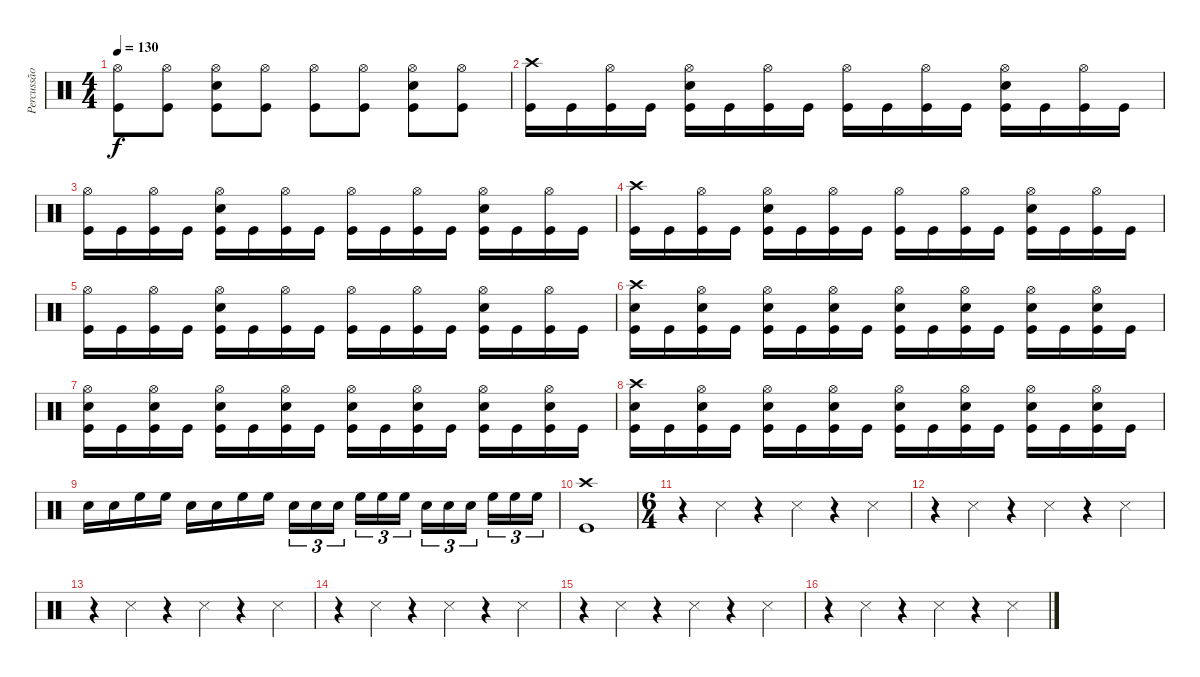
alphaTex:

\track ("Percussão" "Percussão") {instrument percussion}
\staff {score}
\articulation defaults
\ts (4 4)
\tempo 130
\clef neutral
\ks c
("Hi-Hat (open)" "Kick (hit)").8{dy f} ("Hi-Hat (open)" "Kick (hit)").8 ("Hi-Hat (open)" "Snare (hit) 2" "Kick (hit)").8 ("Hi-Hat (open)" "Kick (hit)").8 ("Hi-Hat (open)" "Kick (hit)").8 ("Hi-Hat (open)" "Kick (hit)").8 ("Hi-Hat (open)" "Snare (hit) 2" "Kick (hit)").8 ("Hi-Hat (open)" "Kick (hit)").8 |
("Crash high (hit)" "Kick (hit)").16 "Kick (hit)".16 ("Hi-Hat (open)" "Kick (hit)").16 "Kick (hit)".16 ("Hi-Hat (open)" "Snare (hit) 2" "Kick (hit)").16 "Kick (hit)".16 ("Hi-Hat (open)" "Kick (hit)").16 "Kick (hit)".16 ("Hi-Hat (open)" "Kick (hit)").16 "Kick (hit)".16 ("Hi-Hat (open)" "Kick (hit)").16 "Kick (hit)".16 ("Hi-Hat (open)" "Snare (hit) 2" "Kick (hit)").16 "Kick (hit)".16 ("Hi-Hat (open)" "Kick (hit)").16 "Kick (hit)".16 |
("Hi-Hat (open)" "Kick (hit)").16 "Kick (hit)".16 ("Hi-Hat (open)" "Kick (hit)").16 "Kick (hit)".16 ("Hi-Hat (open)" "Snare (hit) 2" "Kick (hit)").16 "Kick (hit)".16 ("Hi-Hat (open)" "Kick (hit)").16 "Kick (hit)".16 ("Hi-Hat (open)" "Kick (hit)").16 "Kick (hit)".16 ("Hi-Hat (open)" "Kick (hit)").16 "Kick (hit)".16 ("Hi-Hat (open)" "Snare (hit) 2" "Kick (hit)").16 "Kick (hit)".16 ("Hi-Hat (open)" "Kick (hit)").16 "Kick (hit)".16 |
("Crash high (hit)" "Kick (hit)").16 "Kick (hit)".16 ("Hi-Hat (open)" "Kick (hit)").16 "Kick (hit)".16 ("Hi-Hat (open)" "Snare (hit) 2" "Kick (hit)").16 "Kick (hit)".16 ("Hi-Hat (open)" "Kick (hit)").16 "Kick (hit)".16 ("Hi-Hat (open)" "Kick (hit)").16 "Kick (hit)".16 ("Hi-Hat (open)" "Kick (hit)").16 "Kick (hit)".16 ("Hi-Hat (open)" "Snare (hit) 2" "Kick (hit)").16 "Kick (hit)".16 ("Hi-Hat (open)" "Kick (hit)").16 "Kick (hit)".16 |
("Hi-Hat (open)" "Kick (hit)").16 "Kick (hit)".16 ("Hi-Hat (open)" "Kick (hit)").16 "Kick (hit)".16 ("Hi-Hat (open)" "Snare (hit) 2" "Kick (hit)").16 "Kick (hit)".16 ("Hi-Hat (open)" "Kick (hit)").16 "Kick (hit)".16 ("Hi-Hat (open)" "Kick (hit)").16 "Kick (hit)".16 ("Hi-Hat (open)" "Kick (hit)").16 "Kick (hit)".16 ("Hi-Hat (open)" "Snare (hit) 2" "Kick (hit)").16 "Kick (hit)".16 ("Hi-Hat (open)" "Kick (hit)").16 "Kick (hit)".16 |
("Crash high (hit)" "Snare (hit) 2" "Kick (hit)").16 "Kick (hit)".16 ("Hi-Hat (open)" "Snare (hit) 2" "Kick (hit)").16 "Kick (hit)".16 ("Hi-Hat (open)" "Snare (hit) 2" "Kick (hit)").16 "Kick (hit)".16 ("Hi-Hat (open)" "Snare (hit) 2" "Kick (hit)").16 "Kick (hit)".16 ("Hi-Hat (open)" "Snare (hit) 2" "Kick (hit)").16 "Kick (hit)".16 ("Hi-Hat (open)" "Snare (hit) 2" "Kick (hit)").16 "Kick (hit)".16 ("Hi-Hat (open)" "Snare (hit) 2" "Kick (hit)").16 "Kick (hit)".16 ("Hi-Hat (open)" "Snare (hit) 2" "Kick (hit)").16 "Kick (hit)".16 |
("Hi-Hat (open)" "Snare (hit) 2" "Kick (hit)").16 "Kick (hit)".16 ("Hi-Hat (open)" "Snare (hit) 2" "Kick (hit)").16 "Kick (hit)".16 ("Hi-Hat (open)" "Snare (hit) 2" "Kick (hit)").16 "Kick (hit)".16 ("Hi-Hat (open)" "Snare (hit) 2" "Kick (hit)").16 "Kick (hit)".16 ("Hi-Hat (open)" "Snare (hit) 2" "Kick (hit)").16 "Kick (hit)".16 ("Hi-Hat (open)" "Snare (hit) 2" "Kick (hit)").16 "Kick (hit)".16 ("Hi-Hat (open)" "Snare (hit) 2" "Kick (hit)").16 "Kick (hit)".16 ("Hi-Hat (open)" "Snare (hit) 2" "Kick (hit)").16 "Kick (hit)".16 |
("Crash high (hit)" "Snare (hit) 2" "Kick (hit)").16 "Kick (hit)".16 ("Hi-Hat (open)" "Snare (hit) 2" "Kick (hit)").16 "Kick (hit)".16 ("Hi-Hat (open)" "Snare (hit) 2" "Kick (hit)").16 "Kick (hit)".16 ("Hi-Hat (open)" "Snare (hit) 2" "Kick (hit)").16 "Kick (hit)".16 ("Hi-Hat (open)" "Snare (hit) 2" "Kick (hit)").16 "Kick (hit)".16 ("Hi-Hat (open)" "Snare (hit) 2" "Kick (hit)").16 "Kick (hit)".16 ("Hi-Hat (open)" "Snare (hit) 2" "Kick (hit)").16 "Kick (hit)".16 ("Hi-Hat (open)" "Snare (hit) 2" "Kick (hit)").16 "Kick (hit)".16 |
"Snare (hit) 2".16 "Snare (hit) 2".16 "High Floor Tom (hit)".16 "High Floor Tom (hit)".16 "Snare (hit) 2".16 "Snare (hit) 2".16 "High Floor Tom (hit)".16 "High Floor Tom (hit)".16 "Snare (hit) 2".16{tu (3 2)} "Snare (hit) 2".16{tu (3 2)} "Snare (hit) 2".16{tu (3 2)} "High Floor Tom (hit)".16{tu (3 2)} "High Floor Tom (hit)".16{tu (3 2)} "High Floor Tom (hit)".16{tu (3 2)} "Snare (hit) 2".16{tu (3 2)} "Snare (hit) 2".16{tu (3 2)} "Snare (hit) 2".16{tu (3 2)} "High Floor Tom (hit)".16{tu (3 2)} "High Floor Tom (hit)".16{tu (3 2)} "High Floor Tom (hit)".16{tu (3 2)} |
("Crash high (hit)" "Kick (hit)").1 |
\ts (6 4)
r.4 "Snare (side stick) 3".4 r.4 "Snare (side stick) 3".4 r.4 "Snare (side stick) 3".4 |
r.4 "Snare (side stick) 3".4 r.4 "Snare (side stick) 3".4 r.4 "Snare (side stick) 3".4 |
r.4 "Snare (side stick) 3".4 r.4 "Snare (side stick) 3".4 r.4 "Snare (side stick) 3".4 |
r.4 "Snare (side stick) 3".4 r.4 "Snare (side stick) 3".4 r.4 "Snare (side stick) 3".4 |
r.4 "Snare (side stick) 3".4 r.4 "Snare (side stick) 3".4 r.4 "Snare (side stick) 3".4 |
r.4 "Snare (side stick) 3".4 r.4 "Snare (side stick) 3".4 r.4 "Snare (side stick) 3".4
